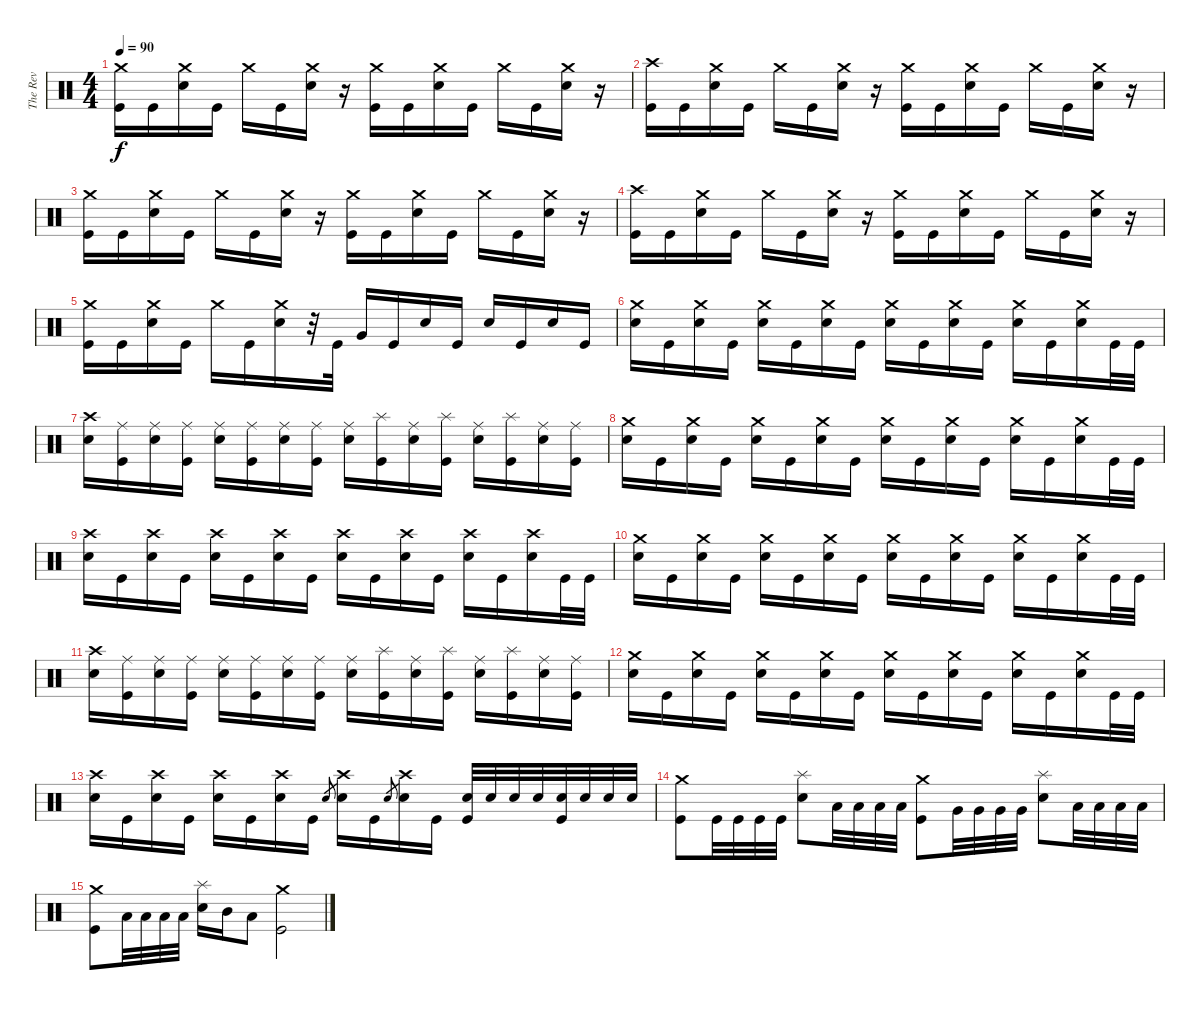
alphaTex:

\track ("The Rev" "The Rev") {instrument percussion}
\staff {score}
\articulation defaults
\ts (4 4)
\tempo 90
\clef neutral
\ks c
("Crash medium (hit)" "Kick (hit)").16{dy f} "Kick (hit)".16 ("Crash medium (hit)" "Electric Snare (hit)").16 "Kick (hit)".16 "Crash medium (hit)".16 "Kick (hit)".16 ("Crash medium (hit)" "Electric Snare (hit)").16 r.16 ("Crash medium (hit)" "Kick (hit)").16 "Kick (hit)".16 ("Crash medium (hit)" "Electric Snare (hit)").16 "Kick (hit)".16 "Crash medium (hit)".16 "Kick (hit)".16 ("Crash medium (hit)" "Electric Snare (hit)").16 r.16 |
("Crash high (hit)" "Kick (hit)").16 "Kick (hit)".16 ("Crash medium (hit)" "Electric Snare (hit)").16 "Kick (hit)".16 "Crash medium (hit)".16 "Kick (hit)".16 ("Crash medium (hit)" "Electric Snare (hit)").16 r.16 ("Crash medium (hit)" "Kick (hit)").16 "Kick (hit)".16 ("Crash medium (hit)" "Electric Snare (hit)").16 "Kick (hit)".16 "Crash medium (hit)".16 "Kick (hit)".16 ("Crash medium (hit)" "Electric Snare (hit)").16 r.16 |
("Crash medium (hit)" "Kick (hit)").16 "Kick (hit)".16 ("Crash medium (hit)" "Electric Snare (hit)").16 "Kick (hit)".16 "Crash medium (hit)".16 "Kick (hit)".16 ("Crash medium (hit)" "Electric Snare (hit)").16 r.16 ("Crash medium (hit)" "Kick (hit)").16 "Kick (hit)".16 ("Crash medium (hit)" "Electric Snare (hit)").16 "Kick (hit)".16 "Crash medium (hit)".16 "Kick (hit)".16 ("Crash medium (hit)" "Electric Snare (hit)").16 r.16 |
("Crash high (hit)" "Kick (hit)").16 "Kick (hit)".16 ("Crash medium (hit)" "Electric Snare (hit)").16 "Kick (hit)".16 "Crash medium (hit)".16 "Kick (hit)".16 ("Crash medium (hit)" "Electric Snare (hit)").16 r.16 ("Crash medium (hit)" "Kick (hit)").16 "Kick (hit)".16 ("Crash medium (hit)" "Electric Snare (hit)").16 "Kick (hit)".16 "Crash medium (hit)".16 "Kick (hit)".16 ("Crash medium (hit)" "Electric Snare (hit)").16 r.16 |
("Crash medium (hit)" "Kick (hit)").16 "Kick (hit)".16 ("Crash medium (hit)" "Electric Snare (hit)").16 "Kick (hit)".16 "Crash medium (hit)".16 "Kick (hit)".16 ("Crash medium (hit)" "Electric Snare (hit)").16 r.32 "Kick (hit)".32 "Very Low Tom (hit)".16 "Kick (hit)".16 "Electric Snare (hit)".16 "Kick (hit)".16 "Electric Snare (hit)".16 "Kick (hit)".16 "Electric Snare (hit)".16 "Kick (hit)".16 |
("Crash medium (hit)" "Electric Snare (hit)").16 "Kick (hit)".16 ("Crash medium (hit)" "Electric Snare (hit)").16 "Kick (hit)".16 ("Crash medium (hit)" "Electric Snare (hit)").16 "Kick (hit)".16 ("Crash medium (hit)" "Electric Snare (hit)").16 "Kick (hit)".16 ("Crash medium (hit)" "Electric Snare (hit)").16 "Kick (hit)".16 ("Crash medium (hit)" "Electric Snare (hit)").16 "Kick (hit)".16 ("Crash medium (hit)" "Electric Snare (hit)").16 "Kick (hit)".16 ("Crash medium (hit)" "Electric Snare (hit)").16 "Kick (hit)".32 "Kick (hit)".32 |
("Crash high (hit)" "Electric Snare (hit)").16 ("Ride (middle)" "Kick (hit)").16 ("Ride (middle)" "Electric Snare (hit)").16 ("Ride (middle)" "Kick (hit)").16 ("Ride (middle)" "Electric Snare (hit)").16 ("Ride (middle)" "Kick (hit)").16 ("Ride (middle)" "Electric Snare (hit)").16 ("Ride (middle)" "Kick (hit)").16 ("Ride (middle)" "Electric Snare (hit)").16 ("Splash (hit)" "Kick (hit)").16 ("Ride (middle)" "Electric Snare (hit)").16 ("Splash (hit)" "Kick (hit)").16 ("Ride (middle)" "Electric Snare (hit)").16 ("Splash (hit)" "Kick (hit)").16 ("Ride (middle)" "Electric Snare (hit)").16 ("Ride (middle)" "Kick (hit)").16 |
("Crash medium (hit)" "Electric Snare (hit)").16 "Kick (hit)".16 ("Crash medium (hit)" "Electric Snare (hit)").16 "Kick (hit)".16 ("Crash medium (hit)" "Electric Snare (hit)").16 "Kick (hit)".16 ("Crash medium (hit)" "Electric Snare (hit)").16 "Kick (hit)".16 ("Crash medium (hit)" "Electric Snare (hit)").16 "Kick (hit)".16 ("Crash medium (hit)" "Electric Snare (hit)").16 "Kick (hit)".16 ("Crash medium (hit)" "Electric Snare (hit)").16 "Kick (hit)".16 ("Crash medium (hit)" "Electric Snare (hit)").16 "Kick (hit)".32 "Kick (hit)".32 |
("Crash high (hit)" "Electric Snare (hit)").16 "Kick (hit)".16 ("Crash high (hit)" "Electric Snare (hit)").16 "Kick (hit)".16 ("Crash high (hit)" "Electric Snare (hit)").16 "Kick (hit)".16 ("Crash high (hit)" "Electric Snare (hit)").16 "Kick (hit)".16 ("Crash high (hit)" "Electric Snare (hit)").16 "Kick (hit)".16 ("Crash high (hit)" "Electric Snare (hit)").16 "Kick (hit)".16 ("Crash high (hit)" "Electric Snare (hit)").16 "Kick (hit)".16 ("Crash high (hit)" "Electric Snare (hit)").16 "Kick (hit)".32 "Kick (hit)".32 |
("Crash medium (hit)" "Electric Snare (hit)").16 "Kick (hit)".16 ("Crash medium (hit)" "Electric Snare (hit)").16 "Kick (hit)".16 ("Crash medium (hit)" "Electric Snare (hit)").16 "Kick (hit)".16 ("Crash medium (hit)" "Electric Snare (hit)").16 "Kick (hit)".16 ("Crash medium (hit)" "Electric Snare (hit)").16 "Kick (hit)".16 ("Crash medium (hit)" "Electric Snare (hit)").16 "Kick (hit)".16 ("Crash medium (hit)" "Electric Snare (hit)").16 "Kick (hit)".16 ("Crash medium (hit)" "Electric Snare (hit)").16 "Kick (hit)".32 "Kick (hit)".32 |
("Crash high (hit)" "Electric Snare (hit)").16 ("Ride (middle)" "Kick (hit)").16 ("Ride (middle)" "Electric Snare (hit)").16 ("Ride (middle)" "Kick (hit)").16 ("Ride (middle)" "Electric Snare (hit)").16 ("Ride (middle)" "Kick (hit)").16 ("Ride (middle)" "Electric Snare (hit)").16 ("Ride (middle)" "Kick (hit)").16 ("Ride (middle)" "Electric Snare (hit)").16 ("Splash (hit)" "Kick (hit)").16 ("Ride (middle)" "Electric Snare (hit)").16 ("Splash (hit)" "Kick (hit)").16 ("Ride (middle)" "Electric Snare (hit)").16 ("Splash (hit)" "Kick (hit)").16 ("Ride (middle)" "Electric Snare (hit)").16 ("Ride (middle)" "Kick (hit)").16 |
("Crash medium (hit)" "Electric Snare (hit)").16 "Kick (hit)".16 ("Crash medium (hit)" "Electric Snare (hit)").16 "Kick (hit)".16 ("Crash medium (hit)" "Electric Snare (hit)").16 "Kick (hit)".16 ("Crash medium (hit)" "Electric Snare (hit)").16 "Kick (hit)".16 ("Crash medium (hit)" "Electric Snare (hit)").16 "Kick (hit)".16 ("Crash medium (hit)" "Electric Snare (hit)").16 "Kick (hit)".16 ("Crash medium (hit)" "Electric Snare (hit)").16 "Kick (hit)".16 ("Crash medium (hit)" "Electric Snare (hit)").16 "Kick (hit)".32 "Kick (hit)".32 |
("Crash high (hit)" "Electric Snare (hit)").16 "Kick (hit)".16 ("Crash high (hit)" "Electric Snare (hit)").16 "Kick (hit)".16 ("Crash high (hit)" "Electric Snare (hit)").16 "Kick (hit)".16 ("Crash high (hit)" "Electric Snare (hit)").16 "Kick (hit)".16 "Electric Snare (hit)".8{gr} ("Crash high (hit)" "Electric Snare (hit)").16 "Kick (hit)".16 "Electric Snare (hit)".8{gr} ("Crash high (hit)" "Electric Snare (hit)").16 "Kick (hit)".16 ("Electric Snare (hit)" "Kick (hit)").32 "Electric Snare (hit)".32 "Electric Snare (hit)".32 "Electric Snare (hit)".32 ("Electric Snare (hit)" "Kick (hit)").32 "Electric Snare (hit)".32 "Electric Snare (hit)".32 "Electric Snare (hit)".32 |
("Crash medium (hit)" "Kick (hit)").8 "Kick (hit)".32 "Kick (hit)".32 "Kick (hit)".32 "Kick (hit)".32 ("Splash (hit)" "Electric Snare (hit)").8 "Low Tom (hit)".32 "Low Tom (hit)".32 "Low Tom (hit)".32 "Low Tom (hit)".32 ("Crash medium (hit)" "Kick (hit)").8 "Very Low Tom (hit)".32 "Very Low Tom (hit)".32 "Very Low Tom (hit)".32 "Very Low Tom (hit)".32 ("Splash (hit)" "Electric Snare (hit)").8 "Low Tom (hit)".32 "Low Tom (hit)".32 "Low Tom (hit)".32 "Low Tom (hit)".32 |
("Crash medium (hit)" "Kick (hit)").8 "Low Floor Tom (hit)".32 "Low Floor Tom (hit)".32 "Low Floor Tom (hit)".32 "Low Floor Tom (hit)".32 ("Splash (hit)" "Electric Snare (hit)").16 "Mid Tom (hit)".16 "Low Tom (hit)".8 ("Crash medium (hit)" "Kick (hit)").2
